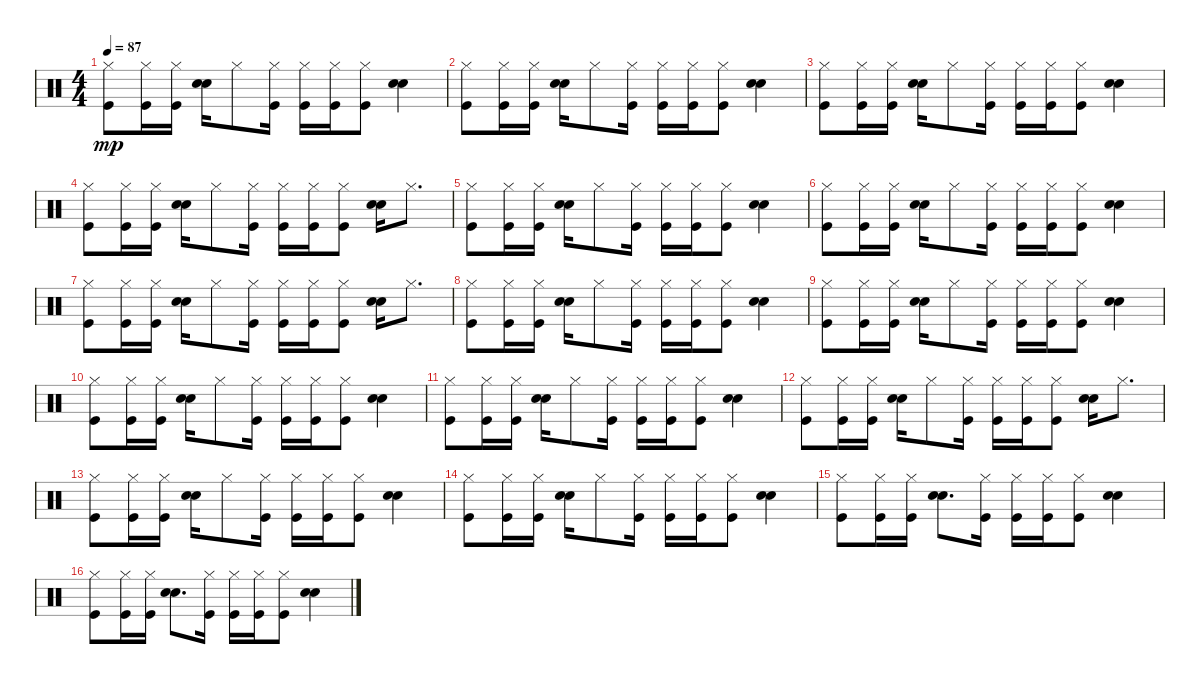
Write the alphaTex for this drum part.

\track "" {instrument percussion}
\staff {score}
\articulation defaults
\ts (4 4)
\tempo 87
\clef neutral
\ks c
("Kick (hit)" "Hi-Hat (closed)").8{dy mp} ("Kick (hit)" "Hi-Hat (closed)").16 ("Kick (hit)" "Hi-Hat (closed)").16 ("Hand Clap (hit)" "Electric Snare (hit)").16 "Hi-Hat (closed)".8 ("Kick (hit)" "Hi-Hat (closed)").16 ("Kick (hit)" "Hi-Hat (closed)").16 ("Kick (hit)" "Hi-Hat (closed)").16 ("Kick (hit)" "Hi-Hat (closed)").8 ("Electric Snare (hit)" "Hand Clap (hit)").4 |
("Kick (hit)" "Hi-Hat (closed)").8 ("Kick (hit)" "Hi-Hat (closed)").16 ("Kick (hit)" "Hi-Hat (closed)").16 ("Hand Clap (hit)" "Electric Snare (hit)").16 "Hi-Hat (closed)".8 ("Kick (hit)" "Hi-Hat (closed)").16 ("Kick (hit)" "Hi-Hat (closed)").16 ("Kick (hit)" "Hi-Hat (closed)").16 ("Kick (hit)" "Hi-Hat (closed)").8 ("Electric Snare (hit)" "Hand Clap (hit)").4 |
("Kick (hit)" "Hi-Hat (closed)").8 ("Kick (hit)" "Hi-Hat (closed)").16 ("Kick (hit)" "Hi-Hat (closed)").16 ("Hand Clap (hit)" "Electric Snare (hit)").16 "Hi-Hat (closed)".8 ("Kick (hit)" "Hi-Hat (closed)").16 ("Kick (hit)" "Hi-Hat (closed)").16 ("Kick (hit)" "Hi-Hat (closed)").16 ("Kick (hit)" "Hi-Hat (closed)").8 ("Electric Snare (hit)" "Hand Clap (hit)").4 |
("Kick (hit)" "Hi-Hat (closed)").8 ("Kick (hit)" "Hi-Hat (closed)").16 ("Kick (hit)" "Hi-Hat (closed)").16 ("Hand Clap (hit)" "Electric Snare (hit)").16 "Hi-Hat (closed)".8 ("Kick (hit)" "Hi-Hat (closed)").16 ("Kick (hit)" "Hi-Hat (closed)").16 ("Kick (hit)" "Hi-Hat (closed)").16 ("Kick (hit)" "Hi-Hat (closed)").8 ("Hand Clap (hit)" "Electric Snare (hit)").16 "Hi-Hat (closed)".8{d} |
("Kick (hit)" "Hi-Hat (closed)").8 ("Kick (hit)" "Hi-Hat (closed)").16 ("Kick (hit)" "Hi-Hat (closed)").16 ("Hand Clap (hit)" "Electric Snare (hit)").16 "Hi-Hat (closed)".8 ("Kick (hit)" "Hi-Hat (closed)").16 ("Kick (hit)" "Hi-Hat (closed)").16 ("Kick (hit)" "Hi-Hat (closed)").16 ("Kick (hit)" "Hi-Hat (closed)").8 ("Electric Snare (hit)" "Hand Clap (hit)").4 |
("Kick (hit)" "Hi-Hat (closed)").8 ("Kick (hit)" "Hi-Hat (closed)").16 ("Kick (hit)" "Hi-Hat (closed)").16 ("Hand Clap (hit)" "Electric Snare (hit)").16 "Hi-Hat (closed)".8 ("Kick (hit)" "Hi-Hat (closed)").16 ("Kick (hit)" "Hi-Hat (closed)").16 ("Kick (hit)" "Hi-Hat (closed)").16 ("Kick (hit)" "Hi-Hat (closed)").8 ("Electric Snare (hit)" "Hand Clap (hit)").4 |
("Kick (hit)" "Hi-Hat (closed)").8 ("Kick (hit)" "Hi-Hat (closed)").16 ("Kick (hit)" "Hi-Hat (closed)").16 ("Hand Clap (hit)" "Electric Snare (hit)").16 "Hi-Hat (closed)".8 ("Kick (hit)" "Hi-Hat (closed)").16 ("Kick (hit)" "Hi-Hat (closed)").16 ("Kick (hit)" "Hi-Hat (closed)").16 ("Kick (hit)" "Hi-Hat (closed)").8 ("Hand Clap (hit)" "Electric Snare (hit)").16 "Hi-Hat (closed)".8{d} |
("Kick (hit)" "Hi-Hat (closed)").8 ("Kick (hit)" "Hi-Hat (closed)").16 ("Kick (hit)" "Hi-Hat (closed)").16 ("Hand Clap (hit)" "Electric Snare (hit)").16 "Hi-Hat (closed)".8 ("Kick (hit)" "Hi-Hat (closed)").16 ("Kick (hit)" "Hi-Hat (closed)").16 ("Kick (hit)" "Hi-Hat (closed)").16 ("Kick (hit)" "Hi-Hat (closed)").8 ("Electric Snare (hit)" "Hand Clap (hit)").4 |
("Kick (hit)" "Hi-Hat (closed)").8 ("Kick (hit)" "Hi-Hat (closed)").16 ("Kick (hit)" "Hi-Hat (closed)").16 ("Hand Clap (hit)" "Electric Snare (hit)").16 "Hi-Hat (closed)".8 ("Kick (hit)" "Hi-Hat (closed)").16 ("Kick (hit)" "Hi-Hat (closed)").16 ("Kick (hit)" "Hi-Hat (closed)").16 ("Kick (hit)" "Hi-Hat (closed)").8 ("Electric Snare (hit)" "Hand Clap (hit)").4 |
("Kick (hit)" "Hi-Hat (closed)").8 ("Kick (hit)" "Hi-Hat (closed)").16 ("Kick (hit)" "Hi-Hat (closed)").16 ("Hand Clap (hit)" "Electric Snare (hit)").16 "Hi-Hat (closed)".8 ("Kick (hit)" "Hi-Hat (closed)").16 ("Kick (hit)" "Hi-Hat (closed)").16 ("Kick (hit)" "Hi-Hat (closed)").16 ("Kick (hit)" "Hi-Hat (closed)").8 ("Electric Snare (hit)" "Hand Clap (hit)").4 |
("Kick (hit)" "Hi-Hat (closed)").8 ("Kick (hit)" "Hi-Hat (closed)").16 ("Kick (hit)" "Hi-Hat (closed)").16 ("Hand Clap (hit)" "Electric Snare (hit)").16 "Hi-Hat (closed)".8 ("Kick (hit)" "Hi-Hat (closed)").16 ("Kick (hit)" "Hi-Hat (closed)").16 ("Kick (hit)" "Hi-Hat (closed)").16 ("Kick (hit)" "Hi-Hat (closed)").8 ("Electric Snare (hit)" "Hand Clap (hit)").4 |
("Kick (hit)" "Hi-Hat (closed)").8 ("Kick (hit)" "Hi-Hat (closed)").16 ("Kick (hit)" "Hi-Hat (closed)").16 ("Hand Clap (hit)" "Electric Snare (hit)").16 "Hi-Hat (closed)".8 ("Kick (hit)" "Hi-Hat (closed)").16 ("Kick (hit)" "Hi-Hat (closed)").16 ("Kick (hit)" "Hi-Hat (closed)").16 ("Kick (hit)" "Hi-Hat (closed)").8 ("Hand Clap (hit)" "Electric Snare (hit)").16 "Hi-Hat (closed)".8{d} |
("Kick (hit)" "Hi-Hat (closed)").8 ("Kick (hit)" "Hi-Hat (closed)").16 ("Kick (hit)" "Hi-Hat (closed)").16 ("Hand Clap (hit)" "Electric Snare (hit)").16 "Hi-Hat (closed)".8 ("Kick (hit)" "Hi-Hat (closed)").16 ("Kick (hit)" "Hi-Hat (closed)").16 ("Kick (hit)" "Hi-Hat (closed)").16 ("Kick (hit)" "Hi-Hat (closed)").8 ("Electric Snare (hit)" "Hand Clap (hit)").4 |
("Kick (hit)" "Hi-Hat (closed)").8 ("Kick (hit)" "Hi-Hat (closed)").16 ("Kick (hit)" "Hi-Hat (closed)").16 ("Hand Clap (hit)" "Electric Snare (hit)").16 "Hi-Hat (closed)".8 ("Kick (hit)" "Hi-Hat (closed)").16 ("Kick (hit)" "Hi-Hat (closed)").16 ("Kick (hit)" "Hi-Hat (closed)").16 ("Kick (hit)" "Hi-Hat (closed)").8 ("Electric Snare (hit)" "Hand Clap (hit)").4 |
("Kick (hit)" "Hi-Hat (closed)").8 ("Kick (hit)" "Hi-Hat (closed)").16 ("Kick (hit)" "Hi-Hat (closed)").16 ("Electric Snare (hit)" "Hand Clap (hit)").8{d} ("Kick (hit)" "Hi-Hat (closed)").16 ("Kick (hit)" "Hi-Hat (closed)").16 ("Kick (hit)" "Hi-Hat (closed)").16 ("Kick (hit)" "Hi-Hat (closed)").8 ("Electric Snare (hit)" "Hand Clap (hit)").4 |
("Kick (hit)" "Hi-Hat (closed)").8 ("Kick (hit)" "Hi-Hat (closed)").16 ("Kick (hit)" "Hi-Hat (closed)").16 ("Electric Snare (hit)" "Hand Clap (hit)").8{d} ("Kick (hit)" "Hi-Hat (closed)").16 ("Kick (hit)" "Hi-Hat (closed)").16 ("Kick (hit)" "Hi-Hat (closed)").16 ("Kick (hit)" "Hi-Hat (closed)").8 ("Electric Snare (hit)" "Hand Clap (hit)").4
